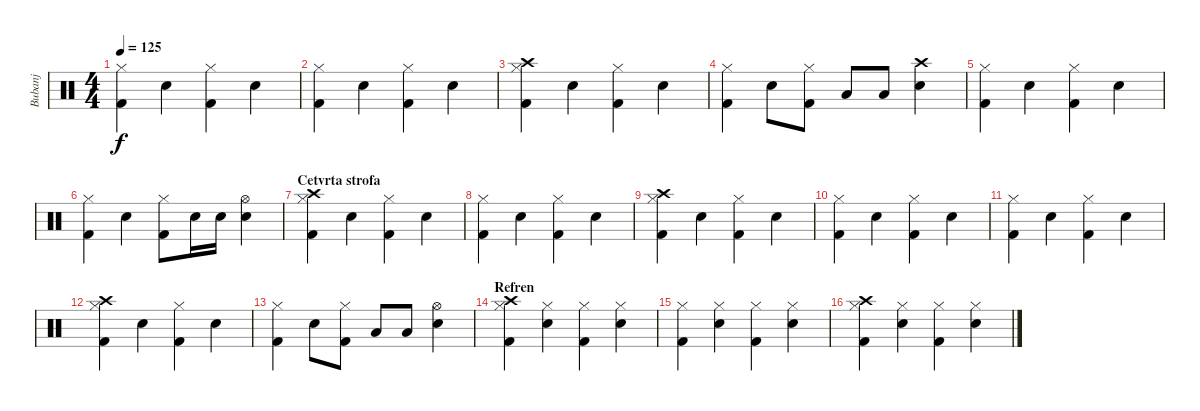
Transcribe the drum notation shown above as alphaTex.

\track ("Bubanj" "Bubanj") {instrument percussion}
\staff {score}
\articulation defaults
\ts (4 4)
\tempo 125
\clef neutral
\ks c
("Hi-Hat (closed)" "Kick (hit) 2").4{dy f} "Electric Snare (hit)".4 ("Hi-Hat (closed)" "Kick (hit) 2").4 "Electric Snare (hit)".4 |
("Hi-Hat (closed)" "Kick (hit) 2").4 "Electric Snare (hit)".4 ("Hi-Hat (closed)" "Kick (hit) 2").4 "Electric Snare (hit)".4 |
("Crash high (hit)" "Hi-Hat (closed)" "Kick (hit) 2").4 "Electric Snare (hit)".4 ("Hi-Hat (closed)" "Kick (hit) 2").4 "Electric Snare (hit)".4 |
("Hi-Hat (closed)" "Kick (hit) 2").4 "Electric Snare (hit)".8 ("Hi-Hat (closed)" "Kick (hit) 2").8 "Low Tom (hit)".8 "Low Floor Tom (hit)".8 ("Crash high (hit)" "Electric Snare (hit)").4 |
("Hi-Hat (closed)" "Kick (hit) 2").4 "Electric Snare (hit)".4 ("Hi-Hat (closed)" "Kick (hit) 2").4 "Electric Snare (hit)".4 |
("Hi-Hat (closed)" "Kick (hit) 2").4 "Electric Snare (hit)".4 ("Hi-Hat (closed)" "Kick (hit) 2").8 "Electric Snare (hit)".16 "Electric Snare (hit)".16 ("Hi-Hat (open)" "Electric Snare (hit)").4 |
\section ("" "Cetvrta strofa")
("Crash high (hit)" "Hi-Hat (closed)" "Kick (hit) 2").4 "Electric Snare (hit)".4 ("Hi-Hat (closed)" "Kick (hit) 2").4 "Electric Snare (hit)".4 |
("Hi-Hat (closed)" "Kick (hit) 2").4 "Electric Snare (hit)".4 ("Hi-Hat (closed)" "Kick (hit) 2").4 "Electric Snare (hit)".4 |
("Crash high (hit)" "Hi-Hat (closed)" "Kick (hit) 2").4 "Electric Snare (hit)".4 ("Hi-Hat (closed)" "Kick (hit) 2").4 "Electric Snare (hit)".4 |
("Hi-Hat (closed)" "Kick (hit) 2").4 "Electric Snare (hit)".4 ("Hi-Hat (closed)" "Kick (hit) 2").4 "Electric Snare (hit)".4 |
("Hi-Hat (closed)" "Kick (hit) 2").4 "Electric Snare (hit)".4 ("Hi-Hat (closed)" "Kick (hit) 2").4 "Electric Snare (hit)".4 |
("Crash high (hit)" "Hi-Hat (closed)" "Kick (hit) 2").4 "Electric Snare (hit)".4 ("Hi-Hat (closed)" "Kick (hit) 2").4 "Electric Snare (hit)".4 |
("Hi-Hat (closed)" "Kick (hit) 2").4 "Electric Snare (hit)".8 ("Hi-Hat (closed)" "Kick (hit) 2").8 "Low Tom (hit)".8 "Low Floor Tom (hit)".8 ("Hi-Hat (open)" "Electric Snare (hit)").4 |
\section ("" "Refren")
("Crash high (hit)" "Hi-Hat (closed)" "Kick (hit) 2").4 ("Electric Snare (hit)" "Hi-Hat (closed)").4 ("Hi-Hat (closed)" "Kick (hit) 2").4 ("Electric Snare (hit)" "Hi-Hat (closed)").4 |
("Hi-Hat (closed)" "Kick (hit) 2").4 ("Electric Snare (hit)" "Hi-Hat (closed)").4 ("Hi-Hat (closed)" "Kick (hit) 2").4 ("Electric Snare (hit)" "Hi-Hat (closed)").4 |
("Crash high (hit)" "Hi-Hat (closed)" "Kick (hit) 2").4 ("Electric Snare (hit)" "Hi-Hat (closed)").4 ("Hi-Hat (closed)" "Kick (hit) 2").4 ("Electric Snare (hit)" "Hi-Hat (closed)").4
